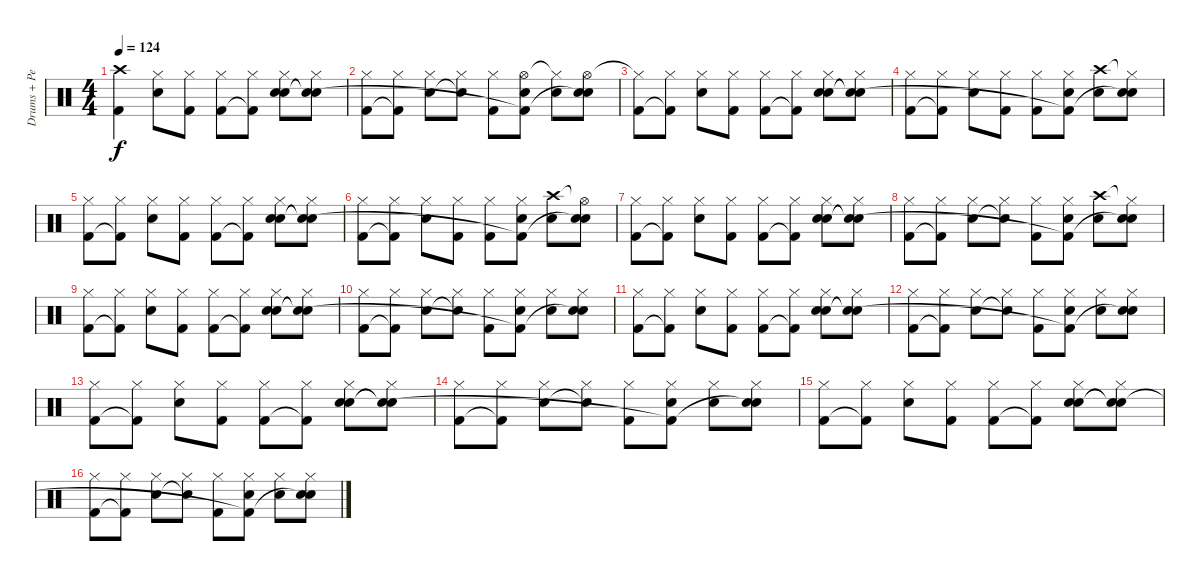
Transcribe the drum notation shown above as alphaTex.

\track ("Drums + Percussions (Bill Berry)" "Drums + Pe") {instrument percussion}
\staff {score}
\articulation defaults
\ts (4 4)
\tempo 124
\clef neutral
\ks c
("Crash high (hit)" "Kick (hit) 2").4{dy f} ("Hi-Hat (closed)" "Snare (hit) 2").8 ("Hi-Hat (closed)" "Kick (hit) 2").8 ("Hi-Hat (closed)" "Kick (hit) 2").8 ("Hi-Hat (closed)" "Kick (hit) 2"{t}).8 ("Hi-Hat (closed)" "Hand Clap (hit)" "Snare (hit) 2").8 ("Hi-Hat (closed)" "Hand Clap (hit)"{t} "Snare (hit) 2"{t}).8 |
("Hi-Hat (closed)" "Kick (hit) 2").8 ("Hi-Hat (closed)" "Kick (hit) 2"{t}).8 ("Hi-Hat (closed)" "Snare (hit) 2").8 ("Hi-Hat (closed)" "Snare (hit) 2"{t}).8 ("Hi-Hat (closed)" "Kick (hit) 2").8 ("Hi-Hat (open)" "Hand Clap (hit)" "Kick (hit) 2"{t}).8 ("Hi-Hat (closed)"{t} "Snare (hit) 2").8 ("Hi-Hat (open)" "Hand Clap (hit)" "Snare (hit) 2"{t}).8 |
("Hi-Hat (closed)"{t} "Kick (hit) 2").8 ("Hi-Hat (closed)" "Kick (hit) 2"{t}).8 ("Hi-Hat (closed)" "Snare (hit) 2").8 ("Hi-Hat (closed)" "Kick (hit) 2").8 ("Hi-Hat (closed)" "Kick (hit) 2").8 ("Hi-Hat (closed)" "Kick (hit) 2"{t}).8 ("Hi-Hat (closed)" "Hand Clap (hit)" "Snare (hit) 2").8 ("Hi-Hat (closed)" "Hand Clap (hit)"{t} "Snare (hit) 2"{t}).8 |
("Hi-Hat (closed)" "Kick (hit) 2").8 ("Hi-Hat (closed)" "Kick (hit) 2"{t}).8 ("Hi-Hat (closed)" "Snare (hit) 2").8 ("Hi-Hat (closed)" "Kick (hit) 2").8 ("Hi-Hat (closed)" "Kick (hit) 2").8 ("Hi-Hat (closed)" "Hand Clap (hit)" "Kick (hit) 2"{t}).8 ("Crash high (hit)" "Snare (hit) 2").8 ("Hi-Hat (closed)"{t} "Hand Clap (hit)" "Snare (hit)"{t}).8 |
("Hi-Hat (closed)" "Kick (hit) 2").8 ("Hi-Hat (closed)" "Kick (hit) 2"{t}).8 ("Hi-Hat (closed)" "Snare (hit) 2").8 ("Hi-Hat (closed)" "Kick (hit) 2").8 ("Hi-Hat (closed)" "Kick (hit) 2").8 ("Hi-Hat (closed)" "Kick (hit) 2"{t}).8 ("Hi-Hat (closed)" "Hand Clap (hit)" "Snare (hit) 2").8 ("Hi-Hat (closed)" "Hand Clap (hit)"{t} "Snare (hit) 2"{t}).8 |
("Hi-Hat (closed)" "Kick (hit) 2").8 ("Hi-Hat (closed)" "Kick (hit) 2"{t}).8 ("Hi-Hat (closed)" "Snare (hit) 2").8 ("Hi-Hat (closed)" "Kick (hit) 2").8 ("Hi-Hat (closed)" "Kick (hit) 2").8 ("Hi-Hat (closed)" "Hand Clap (hit)" "Kick (hit) 2"{t}).8 ("Crash high (hit)" "Snare (hit) 2").8 ("Hi-Hat (open)"{t} "Hand Clap (hit)" "Snare (hit) 2"{t}).8 |
("Hi-Hat (closed)" "Kick (hit) 2").8 ("Hi-Hat (closed)" "Kick (hit) 2"{t}).8 ("Hi-Hat (closed)" "Snare (hit) 2").8 ("Hi-Hat (closed)" "Kick (hit) 2").8 ("Hi-Hat (closed)" "Kick (hit) 2").8 ("Hi-Hat (closed)" "Kick (hit) 2"{t}).8 ("Hi-Hat (closed)" "Hand Clap (hit)" "Snare (hit) 2").8 ("Hi-Hat (closed)" "Hand Clap (hit)"{t} "Snare (hit) 2"{t}).8 |
("Hi-Hat (closed)" "Kick (hit) 2").8 ("Hi-Hat (closed)" "Kick (hit) 2"{t}).8 ("Hi-Hat (closed)" "Snare (hit) 2").8 ("Hi-Hat (closed)" "Snare (hit) 2"{t}).8 ("Hi-Hat (closed)" "Kick (hit) 2").8 ("Hi-Hat (closed)" "Hand Clap (hit)" "Kick (hit) 2"{t}).8 ("Crash high (hit)" "Snare (hit) 2").8 ("Hi-Hat (closed)"{t} "Hand Clap (hit)" "Snare (hit)"{t}).8 |
("Hi-Hat (closed)" "Kick (hit) 2").8 ("Hi-Hat (closed)" "Kick (hit) 2"{t}).8 ("Hi-Hat (closed)" "Snare (hit) 2").8 ("Hi-Hat (closed)" "Kick (hit) 2").8 ("Hi-Hat (closed)" "Kick (hit) 2").8 ("Hi-Hat (closed)" "Kick (hit) 2"{t}).8 ("Hi-Hat (closed)" "Hand Clap (hit)" "Snare (hit) 2").8 ("Hi-Hat (closed)" "Hand Clap (hit)"{t} "Snare (hit) 2"{t}).8 |
("Hi-Hat (closed)" "Kick (hit) 2").8 ("Hi-Hat (closed)" "Kick (hit) 2"{t}).8 ("Hi-Hat (closed)" "Snare (hit) 2").8 ("Hi-Hat (closed)" "Snare (hit) 2"{t}).8 ("Hi-Hat (closed)" "Kick (hit) 2").8 ("Hi-Hat (closed)" "Hand Clap (hit)" "Kick (hit) 2"{t}).8 ("Hi-Hat (closed)" "Snare (hit) 2").8 ("Hi-Hat (closed)" "Hand Clap (hit)" "Snare (hit) 2"{t}).8 |
("Hi-Hat (closed)" "Kick (hit) 2").8 ("Hi-Hat (closed)" "Kick (hit) 2"{t}).8 ("Hi-Hat (closed)" "Snare (hit) 2").8 ("Hi-Hat (closed)" "Kick (hit) 2").8 ("Hi-Hat (closed)" "Kick (hit) 2").8 ("Hi-Hat (closed)" "Kick (hit) 2"{t}).8 ("Hi-Hat (closed)" "Hand Clap (hit)" "Snare (hit) 2").8 ("Hi-Hat (closed)" "Hand Clap (hit)"{t} "Snare (hit) 2"{t}).8 |
("Hi-Hat (closed)" "Kick (hit) 2").8 ("Hi-Hat (closed)" "Kick (hit) 2"{t}).8 ("Hi-Hat (closed)" "Snare (hit) 2").8 ("Hi-Hat (closed)" "Snare (hit) 2"{t}).8 ("Hi-Hat (closed)" "Kick (hit) 2").8 ("Hi-Hat (closed)" "Hand Clap (hit)" "Kick (hit) 2"{t}).8 ("Hi-Hat (closed)" "Snare (hit) 2").8 ("Hi-Hat (closed)" "Hand Clap (hit)" "Snare (hit)"{t}).8 |
("Hi-Hat (closed)" "Kick (hit) 2").8 ("Hi-Hat (closed)" "Kick (hit) 2"{t}).8 ("Hi-Hat (closed)" "Snare (hit) 2").8 ("Hi-Hat (closed)" "Kick (hit) 2").8 ("Hi-Hat (closed)" "Kick (hit) 2").8 ("Hi-Hat (closed)" "Kick (hit) 2"{t}).8 ("Hi-Hat (closed)" "Hand Clap (hit)" "Snare (hit) 2").8 ("Hi-Hat (closed)" "Hand Clap (hit)"{t} "Snare (hit) 2"{t}).8 |
("Hi-Hat (closed)" "Kick (hit) 2").8 ("Hi-Hat (closed)" "Kick (hit) 2"{t}).8 ("Hi-Hat (closed)" "Snare (hit) 2").8 ("Hi-Hat (closed)" "Snare (hit) 2"{t}).8 ("Hi-Hat (closed)" "Kick (hit) 2").8 ("Hi-Hat (closed)" "Hand Clap (hit)" "Kick (hit) 2"{t}).8 ("Hi-Hat (closed)" "Snare (hit) 2").8 ("Hi-Hat (closed)" "Hand Clap (hit)" "Snare (hit) 2"{t}).8 |
("Hi-Hat (closed)" "Kick (hit) 2").8 ("Hi-Hat (closed)" "Kick (hit) 2"{t}).8 ("Hi-Hat (closed)" "Snare (hit) 2").8 ("Hi-Hat (closed)" "Kick (hit) 2").8 ("Hi-Hat (closed)" "Kick (hit) 2").8 ("Hi-Hat (closed)" "Kick (hit) 2"{t}).8 ("Hi-Hat (closed)" "Hand Clap (hit)" "Snare (hit) 2").8 ("Hi-Hat (closed)" "Hand Clap (hit)"{t} "Snare (hit) 2"{t}).8 |
("Hi-Hat (closed)" "Kick (hit) 2").8 ("Hi-Hat (closed)" "Kick (hit) 2"{t}).8 ("Hi-Hat (closed)" "Snare (hit) 2").8 ("Hi-Hat (closed)" "Snare (hit) 2"{t}).8 ("Hi-Hat (closed)" "Kick (hit) 2").8 ("Hi-Hat (closed)" "Hand Clap (hit)" "Kick (hit) 2"{t}).8 ("Hi-Hat (closed)" "Snare (hit) 2").8 ("Hi-Hat (closed)" "Hand Clap (hit)" "Snare (hit)"{t}).8
